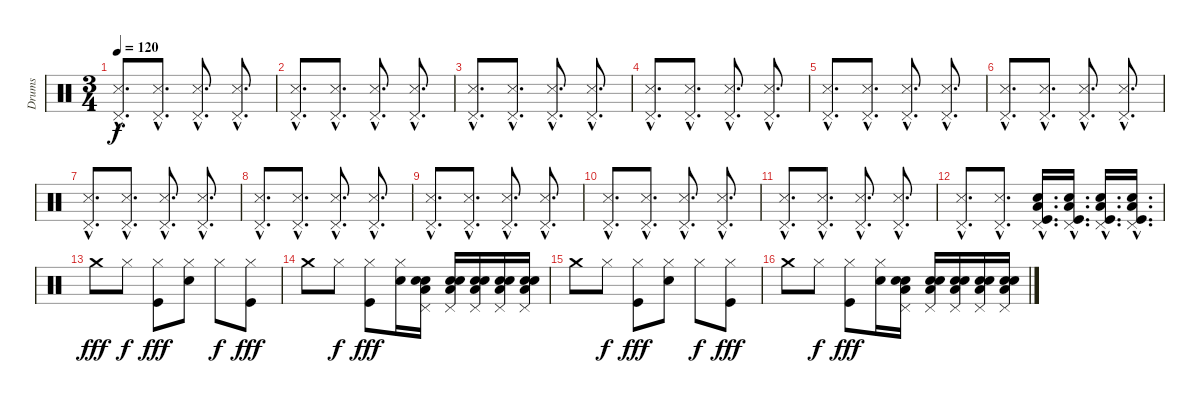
\track ("Drums" "Drums") {instrument percussion}
\staff {score}
\articulation defaults
\ts (3 4)
\tempo 120
\clef neutral
\ks c
("Snare (side stick) 3"{hac} "Pedal Hi-Hat (hit)"{hac}).8{d dy f} ("Snare (side stick) 3"{hac} "Pedal Hi-Hat (hit)"{hac}).8{d} ("Snare (side stick) 3"{hac} "Pedal Hi-Hat (hit)"{hac}).8{d} ("Snare (side stick) 3"{hac} "Pedal Hi-Hat (hit)"{hac}).8{d} |
("Snare (side stick) 3"{hac} "Pedal Hi-Hat (hit)"{hac}).8{d} ("Snare (side stick) 3"{hac} "Pedal Hi-Hat (hit)"{hac}).8{d} ("Snare (side stick) 3"{hac} "Pedal Hi-Hat (hit)"{hac}).8{d} ("Snare (side stick) 3"{hac} "Pedal Hi-Hat (hit)"{hac}).8{d} |
("Snare (side stick) 3"{hac} "Pedal Hi-Hat (hit)"{hac}).8{d} ("Snare (side stick) 3"{hac} "Pedal Hi-Hat (hit)"{hac}).8{d} ("Snare (side stick) 3"{hac} "Pedal Hi-Hat (hit)"{hac}).8{d} ("Snare (side stick) 3"{hac} "Pedal Hi-Hat (hit)"{hac}).8{d} |
("Snare (side stick) 3"{hac} "Pedal Hi-Hat (hit)"{hac}).8{d} ("Snare (side stick) 3"{hac} "Pedal Hi-Hat (hit)"{hac}).8{d} ("Snare (side stick) 3"{hac} "Pedal Hi-Hat (hit)"{hac}).8{d} ("Snare (side stick) 3"{hac} "Pedal Hi-Hat (hit)"{hac}).8{d} |
("Snare (side stick) 3"{hac} "Pedal Hi-Hat (hit)"{hac}).8{d} ("Snare (side stick) 3"{hac} "Pedal Hi-Hat (hit)"{hac}).8{d} ("Snare (side stick) 3"{hac} "Pedal Hi-Hat (hit)"{hac}).8{d} ("Snare (side stick) 3"{hac} "Pedal Hi-Hat (hit)"{hac}).8{d} |
("Snare (side stick) 3"{hac} "Pedal Hi-Hat (hit)"{hac}).8{d} ("Snare (side stick) 3"{hac} "Pedal Hi-Hat (hit)"{hac}).8{d} ("Snare (side stick) 3"{hac} "Pedal Hi-Hat (hit)"{hac}).8{d} ("Snare (side stick) 3"{hac} "Pedal Hi-Hat (hit)"{hac}).8{d} |
("Snare (side stick) 3"{hac} "Pedal Hi-Hat (hit)"{hac}).8{d} ("Snare (side stick) 3"{hac} "Pedal Hi-Hat (hit)"{hac}).8{d} ("Snare (side stick) 3"{hac} "Pedal Hi-Hat (hit)"{hac}).8{d} ("Snare (side stick) 3"{hac} "Pedal Hi-Hat (hit)"{hac}).8{d} |
("Snare (side stick) 3"{hac} "Pedal Hi-Hat (hit)"{hac}).8{d} ("Snare (side stick) 3"{hac} "Pedal Hi-Hat (hit)"{hac}).8{d} ("Snare (side stick) 3"{hac} "Pedal Hi-Hat (hit)"{hac}).8{d} ("Snare (side stick) 3"{hac} "Pedal Hi-Hat (hit)"{hac}).8{d} |
("Snare (side stick) 3"{hac} "Pedal Hi-Hat (hit)"{hac}).8{d} ("Snare (side stick) 3"{hac} "Pedal Hi-Hat (hit)"{hac}).8{d} ("Snare (side stick) 3"{hac} "Pedal Hi-Hat (hit)"{hac}).8{d} ("Snare (side stick) 3"{hac} "Pedal Hi-Hat (hit)"{hac}).8{d} |
("Snare (side stick) 3"{hac} "Pedal Hi-Hat (hit)"{hac}).8{d} ("Snare (side stick) 3"{hac} "Pedal Hi-Hat (hit)"{hac}).8{d} ("Snare (side stick) 3"{hac} "Pedal Hi-Hat (hit)"{hac}).8{d} ("Snare (side stick) 3"{hac} "Pedal Hi-Hat (hit)"{hac}).8{d} |
("Snare (side stick) 3"{hac} "Pedal Hi-Hat (hit)"{hac}).8{d} ("Snare (side stick) 3"{hac} "Pedal Hi-Hat (hit)"{hac}).8{d} ("Snare (side stick) 3"{hac} "Pedal Hi-Hat (hit)"{hac}).8{d} ("Snare (side stick) 3"{hac} "Pedal Hi-Hat (hit)"{hac}).8{d} |
("Snare (side stick) 3"{hac} "Pedal Hi-Hat (hit)"{hac}).8{d} ("Snare (side stick) 3"{hac} "Pedal Hi-Hat (hit)"{hac}).8{d} ("Snare (hit) 2"{hac} "Low Floor Tom (hit)"{hac} "Kick (hit)"{hac} "Pedal Hi-Hat (hit)"{hac}).16{d} ("Snare (hit) 2"{hac} "Low Floor Tom (hit)"{hac} "Kick (hit)"{hac} "Pedal Hi-Hat (hit)"{hac}).16{d} ("Snare (hit) 2"{hac} "Low Floor Tom (hit)"{hac} "Kick (hit)"{hac} "Pedal Hi-Hat (hit)"{hac}).16{d} ("Snare (hit) 2"{hac} "Low Floor Tom (hit)"{hac} "Kick (hit)"{hac} "Pedal Hi-Hat (hit)"{hac}).16{d} |
"Crash medium (hit)".8{dy fff} "Hi-Hat (closed)".8{dy f} ("Kick (hit)" "Hi-Hat (closed)").8{dy fff} ("Snare (hit) 2" "Hi-Hat (closed)").8 "Hi-Hat (closed)".8{dy f} ("Kick (hit)" "Hi-Hat (closed)").8{dy fff} |
"Crash medium (hit)".8 "Hi-Hat (closed)".8{dy f} ("Kick (hit)" "Hi-Hat (closed)").8{dy fff} ("Snare (hit) 2" "Hi-Hat (closed)").16 ("Low Floor Tom (hit)" "Snare (hit) 2" "Snare (hit) 2" "Pedal Hi-Hat (hit)").16 ("Low Floor Tom (hit)" "Snare (hit) 2" "Snare (hit) 2" "Pedal Hi-Hat (hit)").16 ("Low Floor Tom (hit)" "Snare (hit) 2" "Snare (hit) 2" "Pedal Hi-Hat (hit)").16 ("Low Floor Tom (hit)" "Snare (hit) 2" "Snare (hit) 2" "Pedal Hi-Hat (hit)").16 ("Low Floor Tom (hit)" "Snare (hit) 2" "Snare (hit) 2" "Pedal Hi-Hat (hit)").16 |
"Crash medium (hit)".8 "Hi-Hat (closed)".8{dy f} ("Kick (hit)" "Hi-Hat (closed)").8{dy fff} ("Snare (hit) 2" "Hi-Hat (closed)").8 "Hi-Hat (closed)".8{dy f} ("Kick (hit)" "Hi-Hat (closed)").8{dy fff} |
"Crash medium (hit)".8 "Hi-Hat (closed)".8{dy f} ("Kick (hit)" "Hi-Hat (closed)").8{dy fff} ("Snare (hit) 2" "Hi-Hat (closed)").16 ("Low Floor Tom (hit)" "Snare (hit) 2" "Snare (hit) 2" "Pedal Hi-Hat (hit)").16 ("Low Floor Tom (hit)" "Snare (hit) 2" "Snare (hit) 2" "Pedal Hi-Hat (hit)").16 ("Low Floor Tom (hit)" "Snare (hit) 2" "Snare (hit) 2" "Pedal Hi-Hat (hit)").16 ("Low Floor Tom (hit)" "Snare (hit) 2" "Snare (hit) 2" "Pedal Hi-Hat (hit)").16 ("Low Floor Tom (hit)" "Snare (hit) 2" "Snare (hit) 2" "Pedal Hi-Hat (hit)").16
